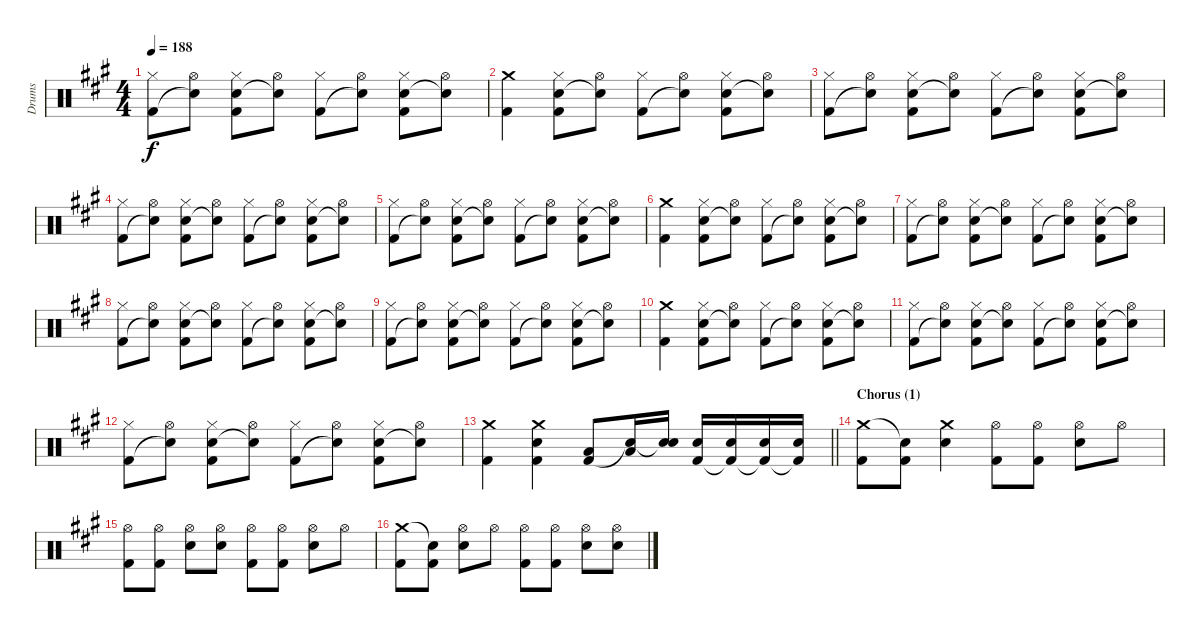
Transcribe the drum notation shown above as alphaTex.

\track ("Drums" "Drums") {instrument percussion}
\staff {score}
\articulation defaults
\ts (4 4)
\tempo 188
\clef neutral
\ks a
("Hi-Hat (closed)" "Kick (hit) 2").8{dy f} ("Hi-Hat (open)" "Snare (hit)"{t}).8 ("Hi-Hat (closed)" "Electric Snare (hit)" "Kick (hit) 2").8 ("Hi-Hat (open)" "Snare (hit)"{t}).8 ("Hi-Hat (closed)" "Kick (hit) 2").8 ("Hi-Hat (open)" "Snare (hit)"{t}).8 ("Hi-Hat (closed)" "Electric Snare (hit)" "Kick (hit) 2").8 ("Hi-Hat (open)" "Snare (hit)"{t}).8 |
("Crash medium (hit)" "Kick (hit) 2").4 ("Hi-Hat (closed)" "Electric Snare (hit)" "Kick (hit) 2").8 ("Hi-Hat (open)" "Snare (hit)"{t}).8 ("Hi-Hat (closed)" "Kick (hit) 2").8 ("Hi-Hat (open)" "Snare (hit)"{t}).8 ("Hi-Hat (closed)" "Electric Snare (hit)" "Kick (hit) 2").8 ("Hi-Hat (open)" "Snare (hit)"{t}).8 |
("Hi-Hat (closed)" "Kick (hit) 2").8 ("Hi-Hat (open)" "Snare (hit)"{t}).8 ("Hi-Hat (closed)" "Electric Snare (hit)" "Kick (hit) 2").8 ("Hi-Hat (open)" "Snare (hit)"{t}).8 ("Hi-Hat (closed)" "Kick (hit) 2").8 ("Hi-Hat (open)" "Snare (hit)"{t}).8 ("Hi-Hat (closed)" "Electric Snare (hit)" "Kick (hit) 2").8 ("Hi-Hat (open)" "Snare (hit)"{t}).8 |
("Hi-Hat (closed)" "Kick (hit) 2").8 ("Hi-Hat (open)" "Snare (hit)"{t}).8 ("Hi-Hat (closed)" "Electric Snare (hit)" "Kick (hit) 2").8 ("Hi-Hat (open)" "Snare (hit)"{t}).8 ("Hi-Hat (closed)" "Kick (hit) 2").8 ("Hi-Hat (open)" "Snare (hit)"{t}).8 ("Hi-Hat (closed)" "Electric Snare (hit)" "Kick (hit) 2").8 ("Hi-Hat (open)" "Snare (hit)"{t}).8 |
("Hi-Hat (closed)" "Kick (hit) 2").8 ("Hi-Hat (open)" "Snare (hit)"{t}).8 ("Hi-Hat (closed)" "Electric Snare (hit)" "Kick (hit) 2").8 ("Hi-Hat (open)" "Snare (hit)"{t}).8 ("Hi-Hat (closed)" "Kick (hit) 2").8 ("Hi-Hat (open)" "Snare (hit)"{t}).8 ("Hi-Hat (closed)" "Electric Snare (hit)" "Kick (hit) 2").8 ("Hi-Hat (open)" "Snare (hit)"{t}).8 |
("Crash medium (hit)" "Kick (hit) 2").4 ("Hi-Hat (closed)" "Electric Snare (hit)" "Kick (hit) 2").8 ("Hi-Hat (open)" "Snare (hit)"{t}).8 ("Hi-Hat (closed)" "Kick (hit) 2").8 ("Hi-Hat (open)" "Snare (hit)"{t}).8 ("Hi-Hat (closed)" "Electric Snare (hit)" "Kick (hit) 2").8 ("Hi-Hat (open)" "Snare (hit)"{t}).8 |
("Hi-Hat (closed)" "Kick (hit) 2").8 ("Hi-Hat (open)" "Snare (hit)"{t}).8 ("Hi-Hat (closed)" "Electric Snare (hit)" "Kick (hit) 2").8 ("Hi-Hat (open)" "Snare (hit)"{t}).8 ("Hi-Hat (closed)" "Kick (hit) 2").8 ("Hi-Hat (open)" "Snare (hit)"{t}).8 ("Hi-Hat (closed)" "Electric Snare (hit)" "Kick (hit) 2").8 ("Hi-Hat (open)" "Snare (hit)"{t}).8 |
("Hi-Hat (closed)" "Kick (hit) 2").8 ("Hi-Hat (open)" "Snare (hit)"{t}).8 ("Hi-Hat (closed)" "Electric Snare (hit)" "Kick (hit) 2").8 ("Hi-Hat (open)" "Snare (hit)"{t}).8 ("Hi-Hat (closed)" "Kick (hit) 2").8 ("Hi-Hat (open)" "Snare (hit)"{t}).8 ("Hi-Hat (closed)" "Electric Snare (hit)" "Kick (hit) 2").8 ("Hi-Hat (open)" "Snare (hit)"{t}).8 |
("Hi-Hat (closed)" "Kick (hit) 2").8 ("Hi-Hat (open)" "Snare (hit)"{t}).8 ("Hi-Hat (closed)" "Electric Snare (hit)" "Kick (hit) 2").8 ("Hi-Hat (open)" "Snare (hit)"{t}).8 ("Hi-Hat (closed)" "Kick (hit) 2").8 ("Hi-Hat (open)" "Snare (hit)"{t}).8 ("Hi-Hat (closed)" "Electric Snare (hit)" "Kick (hit) 2").8 ("Hi-Hat (open)" "Snare (hit)"{t}).8 |
("Crash medium (hit)" "Kick (hit) 2").4 ("Hi-Hat (closed)" "Electric Snare (hit)" "Kick (hit) 2").8 ("Hi-Hat (open)" "Snare (hit)"{t}).8 ("Hi-Hat (closed)" "Kick (hit) 2").8 ("Hi-Hat (open)" "Snare (hit)"{t}).8 ("Hi-Hat (closed)" "Electric Snare (hit)" "Kick (hit) 2").8 ("Hi-Hat (open)" "Snare (hit)"{t}).8 |
("Hi-Hat (closed)" "Kick (hit) 2").8 ("Hi-Hat (open)" "Snare (hit)"{t}).8 ("Hi-Hat (closed)" "Electric Snare (hit)" "Kick (hit) 2").8 ("Hi-Hat (open)" "Snare (hit)"{t}).8 ("Hi-Hat (closed)" "Kick (hit) 2").8 ("Hi-Hat (open)" "Snare (hit)"{t}).8 ("Hi-Hat (closed)" "Electric Snare (hit)" "Kick (hit) 2").8 ("Hi-Hat (open)" "Snare (hit)"{t}).8 |
("Hi-Hat (closed)" "Kick (hit) 2").8 ("Hi-Hat (open)" "Snare (hit)"{t}).8 ("Hi-Hat (closed)" "Electric Snare (hit)" "Kick (hit) 2").8 ("Hi-Hat (open)" "Snare (hit)"{t}).8 ("Hi-Hat (closed)" "Kick (hit) 2").8 ("Hi-Hat (open)" "Snare (hit)"{t}).8 ("Hi-Hat (closed)" "Electric Snare (hit)" "Kick (hit) 2").8 ("Hi-Hat (open)" "Snare (hit)"{t}).8 |
\barLineRight lightlight
("Crash medium (hit)" "Kick (hit) 2").4 ("Crash medium (hit)" "Electric Snare (hit)" "Kick (hit) 2").4 ("Low Tom (hit)" "Kick (hit) 2").8 ("Low Tom (hit)" "Snare (hit)"{t}).16 ("Electric Snare (hit)" "Snare (hit)"{t}).16 ("Electric Snare (hit)" "Kick (hit) 2").16 ("Electric Snare (hit)" "Kick (hit) 2"{t}).16 ("Electric Snare (hit)" "Kick (hit) 2"{t}).16 ("Electric Snare (hit)" "Kick (hit) 2"{t}).16 |
\section ("" "Chorus (1)")
("Crash medium (hit)" "Kick (hit) 2").8 ("Snare (hit)"{t} "Kick (hit) 2").8 ("Crash medium (hit)" "Electric Snare (hit)").4 ("Hi-Hat (open)" "Kick (hit) 2").8 ("Hi-Hat (open)" "Kick (hit) 2").8 ("Hi-Hat (open)" "Electric Snare (hit)").8 "Hi-Hat (open)".8 |
("Hi-Hat (open)" "Kick (hit) 2").8 ("Hi-Hat (open)" "Kick (hit) 2").8 ("Hi-Hat (open)" "Electric Snare (hit)").8 ("Hi-Hat (open)" "Electric Snare (hit)").8 ("Hi-Hat (open)" "Kick (hit) 2").8 ("Hi-Hat (open)" "Kick (hit) 2").8 ("Hi-Hat (open)" "Electric Snare (hit)").8 "Hi-Hat (open)".8 |
("Crash medium (hit)" "Kick (hit) 2").8 ("Snare (hit)"{t} "Kick (hit) 2").8 ("Hi-Hat (open)" "Electric Snare (hit)").8 "Hi-Hat (open)".8 ("Hi-Hat (open)" "Kick (hit) 2").8 ("Hi-Hat (open)" "Kick (hit) 2").8 ("Hi-Hat (open)" "Electric Snare (hit)").8 ("Hi-Hat (open)" "Electric Snare (hit)").8
